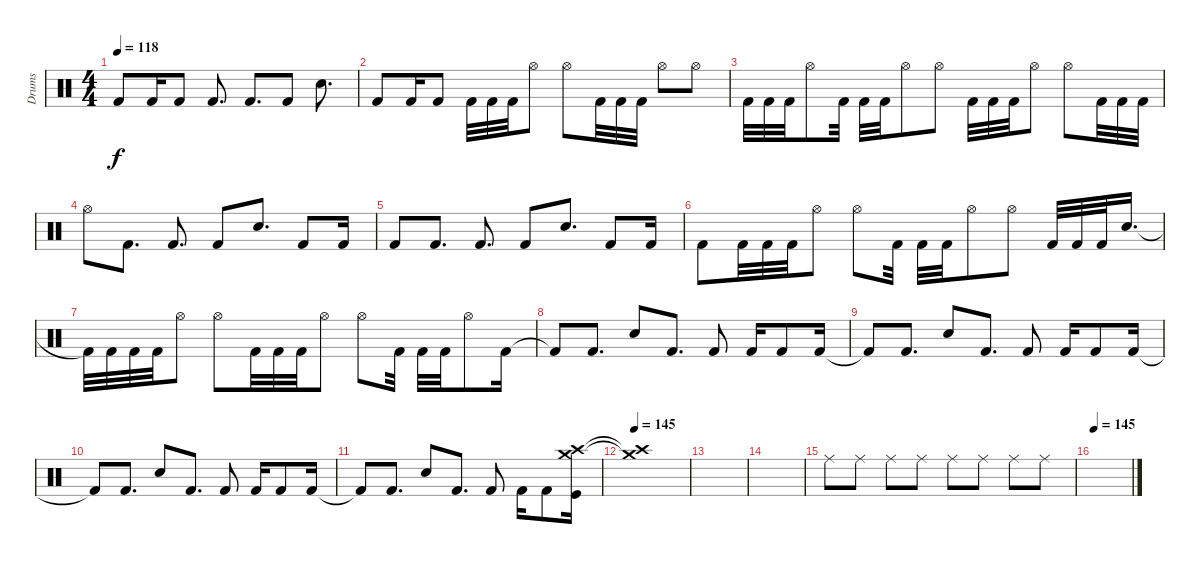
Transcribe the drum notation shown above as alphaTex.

\track ("Drums" "Drums") {instrument percussion}
\staff {score}
\articulation defaults
\ts (4 4)
\tempo 118
\clef neutral
\ks c "Kick (hit) 2".8{dy f} "Kick (hit) 2".16 "Kick (hit) 2".8 "Kick (hit) 2".8{d} "Kick (hit) 2".8{d} "Kick (hit) 2".8 "Snare (hit) 2".8{d}
|
"Kick (hit) 2".8 "Kick (hit) 2".16 "Kick (hit) 2".8 "Kick (hit) 2".32 "Kick (hit) 2".32 "Kick (hit) 2".32 "Hi-Hat (open)".8 "Hi-Hat (open)".8 "Kick (hit) 2".32 "Kick (hit) 2".32 "Kick (hit) 2".32 "Hi-Hat (open)".8 "Hi-Hat (open)".8 |
"Kick (hit) 2".32 "Kick (hit) 2".32 "Kick (hit) 2".32 "Hi-Hat (open)".8 "Kick (hit) 2".32 "Kick (hit) 2".32 "Kick (hit) 2".32 "Hi-Hat (open)".8 "Hi-Hat (open)".8 "Kick (hit) 2".32 "Kick (hit) 2".32 "Kick (hit) 2".32 "Hi-Hat (open)".8 "Hi-Hat (open)".8 "Kick (hit) 2".32 "Kick (hit) 2".32 "Kick (hit) 2".32 |
"Hi-Hat (open)".8 "Kick (hit) 2".8{d} "Kick (hit) 2".8{d} "Kick (hit) 2".8 "Snare (hit) 2".8{d} "Kick (hit) 2".8 "Kick (hit) 2".16 |
"Kick (hit) 2".8 "Kick (hit) 2".8{d} "Kick (hit) 2".8{d} "Kick (hit) 2".8 "Snare (hit) 2".8{d} "Kick (hit) 2".8 "Kick (hit) 2".16 |
"Kick (hit) 2".8 "Kick (hit) 2".32 "Kick (hit) 2".32 "Kick (hit) 2".32 "Hi-Hat (open)".8 "Hi-Hat (open)".8 "Kick (hit) 2".32 "Kick (hit) 2".32 "Kick (hit) 2".32 "Hi-Hat (open)".8 "Hi-Hat (open)".8 "Kick (hit) 2".32 "Kick (hit) 2".32 "Kick (hit) 2".32 "Snare (hit) 2".16{d} |
"Kick (hit) 2"{t}.32 "Kick (hit) 2".32 "Kick (hit) 2".32 "Kick (hit) 2".32 "Hi-Hat (open)".8 "Hi-Hat (open)".8 "Kick (hit) 2".32 "Kick (hit) 2".32 "Kick (hit) 2".32 "Hi-Hat (open)".8 "Hi-Hat (open)".8 "Kick (hit) 2".32 "Kick (hit) 2".32 "Kick (hit) 2".32 "Hi-Hat (open)".8 "Kick (hit) 2".16 |
"Kick (hit) 2"{t}.8 "Kick (hit) 2".8{d} "Snare (hit) 2".8 "Kick (hit) 2".8{d} "Kick (hit) 2".8 "Kick (hit) 2".16 "Kick (hit) 2".8 "Kick (hit) 2".16 |
"Kick (hit) 2"{t}.8 "Kick (hit) 2".8{d} "Snare (hit) 2".8 "Kick (hit) 2".8{d} "Kick (hit) 2".8 "Kick (hit) 2".16 "Kick (hit) 2".8 "Kick (hit) 2".16 |
"Kick (hit) 2"{t}.8 "Kick (hit) 2".8{d} "Snare (hit) 2".8 "Kick (hit) 2".8{d} "Kick (hit) 2".8 "Kick (hit) 2".16 "Kick (hit) 2".8 "Kick (hit) 2".16 |
"Kick (hit) 2"{t}.8 "Kick (hit) 2".8{d} "Snare (hit) 2".8 "Kick (hit) 2".8{d} "Kick (hit) 2".8 "Kick (hit) 2".16 "Kick (hit) 2".8 ("Crash medium (hit)" "Crash high (hit)" "Kick (hit)").16 |
\tempo 145
("Crash medium (hit)"{t} "Crash high (hit)"{t}).1 |
|
|
"Ride (middle)".8 "Ride (middle)".8 "Ride (middle)".8 "Ride (middle)".8 "Ride (middle)".8 "Ride (middle)".8 "Ride (middle)".8 "Ride (middle)".8 |
\tempo 145
